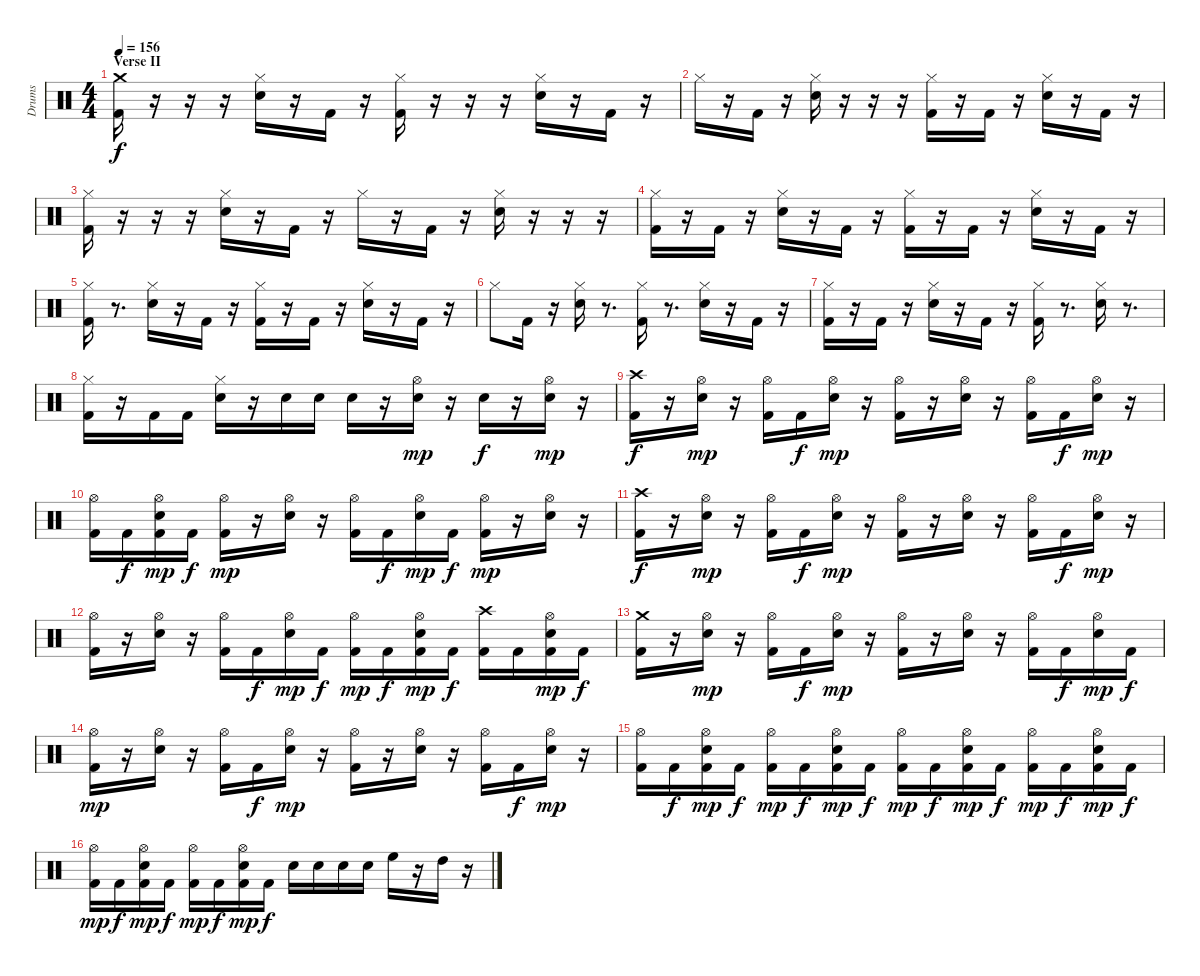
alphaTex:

\track ("Drums" "Drums") {instrument percussion}
\staff {score}
\articulation defaults
\ts (4 4)
\section ("" "Verse II")
\tempo 156
\clef neutral
\ks c
("Kick (hit) 2" "Crash medium (hit)").16{dy f} r.16 r.16 r.16 ("Snare (hit) 2" "Hi-Hat (closed)").16 r.16 "Kick (hit) 2".16 r.16 ("Kick (hit) 2" "Hi-Hat (closed)").16 r.16 r.16 r.16 ("Snare (hit) 2" "Hi-Hat (closed)").16 r.16 "Kick (hit) 2".16 r.16 |
"Hi-Hat (closed)".16 r.16 "Kick (hit) 2".16 r.16 ("Snare (hit) 2" "Hi-Hat (closed)").16 r.16 r.16 r.16 ("Kick (hit) 2" "Hi-Hat (closed)").16 r.16 "Kick (hit) 2".16 r.16 ("Snare (hit) 2" "Hi-Hat (closed)").16 r.16 "Kick (hit) 2".16 r.16 |
("Kick (hit) 2" "Hi-Hat (closed)").16 r.16 r.16 r.16 ("Snare (hit) 2" "Hi-Hat (closed)").16 r.16 "Kick (hit) 2".16 r.16 "Hi-Hat (closed)".16 r.16 "Kick (hit) 2".16 r.16 ("Snare (hit) 2" "Hi-Hat (closed)").16 r.16 r.16 r.16 |
("Kick (hit) 2" "Hi-Hat (closed)").16 r.16 "Kick (hit) 2".16 r.16 ("Snare (hit) 2" "Hi-Hat (closed)").16 r.16 "Kick (hit) 2".16 r.16 ("Kick (hit) 2" "Hi-Hat (closed)").16 r.16 "Kick (hit) 2".16 r.16 ("Snare (hit) 2" "Hi-Hat (closed)").16 r.16 "Kick (hit) 2".16 r.16 |
("Kick (hit) 2" "Hi-Hat (closed)").16 r.8{d} ("Snare (hit) 2" "Hi-Hat (closed)").16 r.16 "Kick (hit) 2".16 r.16 ("Kick (hit) 2" "Hi-Hat (closed)").16 r.16 "Kick (hit) 2".16 r.16 ("Snare (hit) 2" "Hi-Hat (closed)").16 r.16 "Kick (hit) 2".16 r.16 |
"Hi-Hat (closed)".8 "Kick (hit) 2".16 r.16 ("Snare (hit) 2" "Hi-Hat (closed)").16 r.8{d} ("Kick (hit) 2" "Hi-Hat (closed)").16 r.8{d} ("Snare (hit) 2" "Hi-Hat (closed)").16 r.16 "Kick (hit) 2".16 r.16 |
("Kick (hit) 2" "Hi-Hat (closed)").16 r.16 "Kick (hit) 2".16 r.16 ("Snare (hit) 2" "Hi-Hat (closed)").16 r.16 "Kick (hit) 2".16 r.16 ("Kick (hit) 2" "Hi-Hat (closed)").16 r.8{d} ("Snare (hit) 2" "Hi-Hat (closed)").16 r.8{d} |
("Kick (hit) 2" "Hi-Hat (closed)").16 r.16 "Kick (hit) 2".16 "Kick (hit) 2".16 ("Snare (hit) 2" "Hi-Hat (closed)").16 r.16 "Snare (hit) 2".16 "Snare (hit) 2".16 "Snare (hit) 2".16 r.16 ("Snare (hit) 2" "Hi-Hat (open)").16{dy mp} r.16 "Snare (hit) 2".16{dy f} r.16 ("Snare (hit) 2" "Hi-Hat (open)").16{dy mp} r.16 |
("Kick (hit) 2" "Crash high (hit)").16{dy f} r.16 ("Snare (hit) 2" "Hi-Hat (open)").16{dy mp} r.16 ("Kick (hit) 2" "Hi-Hat (open)").16 "Kick (hit) 2".16{dy f} ("Snare (hit) 2" "Hi-Hat (open)").16{dy mp} r.16 ("Kick (hit) 2" "Hi-Hat (open)").16 r.16 ("Snare (hit) 2" "Hi-Hat (open)").16 r.16 ("Kick (hit) 2" "Hi-Hat (open)").16 "Kick (hit) 2".16{dy f} ("Snare (hit) 2" "Hi-Hat (open)").16{dy mp} r.16 |
("Kick (hit) 2" "Hi-Hat (open)").16 "Kick (hit) 2".16{dy f} ("Snare (hit) 2" "Kick (hit) 2" "Hi-Hat (open)").16{dy mp} "Kick (hit) 2".16{dy f} ("Kick (hit) 2" "Hi-Hat (open)").16{dy mp} r.16 ("Snare (hit) 2" "Hi-Hat (open)").16 r.16 ("Kick (hit) 2" "Hi-Hat (open)").16 "Kick (hit) 2".16{dy f} ("Snare (hit) 2" "Hi-Hat (open)").16{dy mp} "Kick (hit) 2".16{dy f} ("Kick (hit) 2" "Hi-Hat (open)").16{dy mp} r.16 ("Snare (hit) 2" "Hi-Hat (open)").16 r.16 |
("Kick (hit) 2" "Crash high (hit)").16{dy f} r.16 ("Snare (hit) 2" "Hi-Hat (open)").16{dy mp} r.16 ("Kick (hit) 2" "Hi-Hat (open)").16 "Kick (hit) 2".16{dy f} ("Snare (hit) 2" "Hi-Hat (open)").16{dy mp} r.16 ("Kick (hit) 2" "Hi-Hat (open)").16 r.16 ("Snare (hit) 2" "Hi-Hat (open)").16 r.16 ("Kick (hit) 2" "Hi-Hat (open)").16 "Kick (hit) 2".16{dy f} ("Snare (hit) 2" "Hi-Hat (open)").16{dy mp} r.16 |
("Kick (hit) 2" "Hi-Hat (open)").16 r.16 ("Snare (hit) 2" "Hi-Hat (open)").16 r.16 ("Kick (hit) 2" "Hi-Hat (open)").16 "Kick (hit) 2".16{dy f} ("Snare (hit) 2" "Hi-Hat (open)").16{dy mp} "Kick (hit) 2".16{dy f} ("Kick (hit) 2" "Hi-Hat (open)").16{dy mp} "Kick (hit) 2".16{dy f} ("Snare (hit) 2" "Kick (hit) 2" "Hi-Hat (open)").16{dy mp} "Kick (hit) 2".16{dy f} ("Kick (hit) 2" "Crash high (hit)").16 "Kick (hit) 2".16 ("Snare (hit) 2" "Kick (hit) 2" "Hi-Hat (open)").16{dy mp} "Kick (hit) 2".16{dy f} |
("Kick (hit) 2" "Crash medium (hit)").16 r.16 ("Snare (hit) 2" "Hi-Hat (open)").16{dy mp} r.16 ("Kick (hit) 2" "Hi-Hat (open)").16 "Kick (hit) 2".16{dy f} ("Snare (hit) 2" "Hi-Hat (open)").16{dy mp} r.16 ("Kick (hit) 2" "Hi-Hat (open)").16 r.16 ("Snare (hit) 2" "Hi-Hat (open)").16 r.16 ("Kick (hit) 2" "Hi-Hat (open)").16 "Kick (hit) 2".16{dy f} ("Snare (hit) 2" "Hi-Hat (open)").16{dy mp} "Kick (hit) 2".16{dy f} |
("Kick (hit) 2" "Hi-Hat (open)").16{dy mp} r.16 ("Snare (hit) 2" "Hi-Hat (open)").16 r.16 ("Kick (hit) 2" "Hi-Hat (open)").16 "Kick (hit) 2".16{dy f} ("Snare (hit) 2" "Hi-Hat (open)").16{dy mp} r.16 ("Kick (hit) 2" "Hi-Hat (open)").16 r.16 ("Snare (hit) 2" "Hi-Hat (open)").16 r.16 ("Kick (hit) 2" "Hi-Hat (open)").16 "Kick (hit) 2".16{dy f} ("Snare (hit) 2" "Hi-Hat (open)").16{dy mp} r.16 |
("Kick (hit) 2" "Hi-Hat (open)").16 "Kick (hit) 2".16{dy f} ("Snare (hit) 2" "Kick (hit) 2" "Hi-Hat (open)").16{dy mp} "Kick (hit) 2".16{dy f} ("Kick (hit) 2" "Hi-Hat (open)").16{dy mp} "Kick (hit) 2".16{dy f} ("Snare (hit) 2" "Kick (hit) 2" "Hi-Hat (open)").16{dy mp} "Kick (hit) 2".16{dy f} ("Kick (hit) 2" "Hi-Hat (open)").16{dy mp} "Kick (hit) 2".16{dy f} ("Snare (hit) 2" "Kick (hit) 2" "Hi-Hat (open)").16{dy mp} "Kick (hit) 2".16{dy f} ("Kick (hit) 2" "Hi-Hat (open)").16{dy mp} "Kick (hit) 2".16{dy f} ("Snare (hit) 2" "Kick (hit) 2" "Hi-Hat (open)").16{dy mp} "Kick (hit) 2".16{dy f} |
("Kick (hit) 2" "Hi-Hat (open)").16{dy mp} "Kick (hit) 2".16{dy f} ("Snare (hit) 2" "Kick (hit) 2" "Hi-Hat (open)").16{dy mp} "Kick (hit) 2".16{dy f} ("Kick (hit) 2" "Hi-Hat (open)").16{dy mp} "Kick (hit) 2".16{dy f} ("Snare (hit) 2" "Kick (hit) 2" "Hi-Hat (open)").16{dy mp} "Kick (hit) 2".16{dy f} "Snare (hit) 2".16 "Snare (hit) 2".16 "Snare (hit) 2".16 "Snare (hit) 2".16 "High Floor Tom (hit)".16 r.16 "High Tom (hit)".16 r.16
